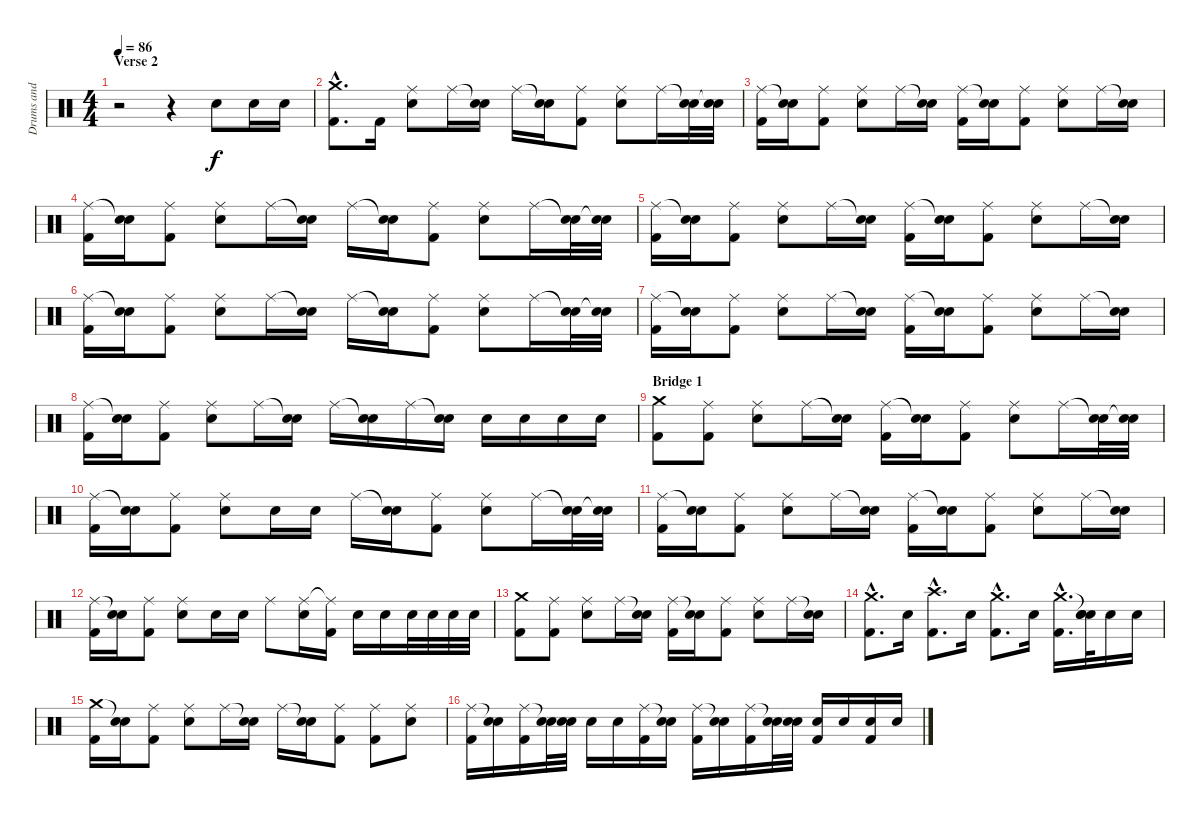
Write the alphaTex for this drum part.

\track ("Drums and Percussion" "Drums and ") {instrument percussion}
\staff {score}
\articulation defaults
\ts (4 4)
\section ("" "Verse 2")
\tempo 86
\clef neutral
\ks c
r.2{dy f} r.4 "Snare (hit) 2".8 "Snare (hit) 2".16 "Snare (hit) 2".16 |
("Crash medium (hit)"{hac} "Kick (hit) 2"{hac}).8{d} "Kick (hit) 2".16 ("Ride (middle)" "Snare (hit) 2").8 "Ride (middle)".16 ("Snare (hit)"{t} "Snare (hit) 2").16 "Ride (middle)".16 ("Snare (hit)"{t} "Snare (hit) 2").16 ("Ride (middle)" "Kick (hit) 2").8 ("Ride (middle)" "Snare (hit) 2").8 "Ride (middle)".16 ("Snare (hit)"{t} "Snare (hit) 2").32 ("Snare (hit)"{t} "Snare (hit) 2").32 |
("Ride (middle)" "Kick (hit) 2").16 ("Snare (hit)"{t} "Snare (hit) 2").16 ("Ride (middle)" "Kick (hit) 2").8 ("Ride (middle)" "Snare (hit) 2").8 "Ride (middle)".16 ("Snare (hit)"{t} "Snare (hit) 2").16 ("Ride (middle)" "Kick (hit) 2").16 ("Snare (hit)"{t} "Snare (hit) 2").16 ("Ride (middle)" "Kick (hit) 2").8 ("Ride (middle)" "Snare (hit) 2").8 "Ride (middle)".16 ("Snare (hit)"{t} "Snare (hit) 2").16 |
("Ride (middle)" "Kick (hit) 2").16 ("Snare (hit)"{t} "Snare (hit) 2").16 ("Ride (middle)" "Kick (hit) 2").8 ("Ride (middle)" "Snare (hit) 2").8 "Ride (middle)".16 ("Snare (hit)"{t} "Snare (hit) 2").16 "Ride (middle)".16 ("Snare (hit)"{t} "Snare (hit) 2").16 ("Ride (middle)" "Kick (hit) 2").8 ("Ride (middle)" "Snare (hit) 2").8 "Ride (middle)".16 ("Snare (hit)"{t} "Snare (hit) 2").32 ("Snare (hit)"{t} "Snare (hit) 2").32 |
("Ride (middle)" "Kick (hit) 2").16 ("Snare (hit)"{t} "Snare (hit) 2").16 ("Ride (middle)" "Kick (hit) 2").8 ("Ride (middle)" "Snare (hit) 2").8 "Ride (middle)".16 ("Snare (hit)"{t} "Snare (hit) 2").16 ("Ride (middle)" "Kick (hit) 2").16 ("Snare (hit)"{t} "Snare (hit) 2").16 ("Ride (middle)" "Kick (hit) 2").8 ("Ride (middle)" "Snare (hit) 2").8 "Ride (middle)".16 ("Snare (hit)"{t} "Snare (hit) 2").16 |
("Ride (middle)" "Kick (hit) 2").16 ("Snare (hit)"{t} "Snare (hit) 2").16 ("Ride (middle)" "Kick (hit) 2").8 ("Ride (middle)" "Snare (hit) 2").8 "Ride (middle)".16 ("Snare (hit)"{t} "Snare (hit) 2").16 "Ride (middle)".16 ("Snare (hit)"{t} "Snare (hit) 2").16 ("Ride (middle)" "Kick (hit) 2").8 ("Ride (middle)" "Snare (hit) 2").8 "Ride (middle)".16 ("Snare (hit)"{t} "Snare (hit) 2").32 ("Snare (hit)"{t} "Snare (hit) 2").32 |
("Ride (middle)" "Kick (hit) 2").16 ("Snare (hit)"{t} "Snare (hit) 2").16 ("Ride (middle)" "Kick (hit) 2").8 ("Ride (middle)" "Snare (hit) 2").8 "Ride (middle)".16 ("Snare (hit)"{t} "Snare (hit) 2").16 ("Ride (middle)" "Kick (hit) 2").16 ("Snare (hit)"{t} "Snare (hit) 2").16 ("Ride (middle)" "Kick (hit) 2").8 ("Ride (middle)" "Snare (hit) 2").8 "Ride (middle)".16 ("Snare (hit)"{t} "Snare (hit) 2").16 |
("Ride (middle)" "Kick (hit) 2").16 ("Snare (hit)"{t} "Snare (hit) 2").16 ("Ride (middle)" "Kick (hit) 2").8 ("Ride (middle)" "Snare (hit) 2").8 "Ride (middle)".16 ("Snare (hit)"{t} "Snare (hit) 2").16 "Ride (middle)".16 ("Snare (hit)"{t} "Snare (hit) 2").16 "Ride (middle)".16 ("Snare (hit)"{t} "Snare (hit) 2").16 "Snare (hit) 2".16 "Snare (hit) 2".16 "Snare (hit) 2".16 "Snare (hit) 2".16 |
\section ("" "Bridge 1")
("Crash medium (hit)" "Kick (hit) 2").8 ("Ride (middle)" "Kick (hit) 2").8 ("Ride (middle)" "Snare (hit) 2").8 "Ride (middle)".16 ("Snare (hit)"{t} "Snare (hit) 2").16 ("Ride (middle)" "Kick (hit) 2").16 ("Snare (hit)"{t} "Snare (hit) 2").16 ("Ride (middle)" "Kick (hit) 2").8 ("Ride (middle)" "Snare (hit) 2").8 "Ride (middle)".16 ("Snare (hit)"{t} "Snare (hit) 2").32 ("Snare (hit)"{t} "Snare (hit) 2").32 |
("Ride (middle)" "Kick (hit) 2").16 ("Snare (hit)"{t} "Snare (hit) 2").16 ("Ride (middle)" "Kick (hit) 2").8 ("Ride (middle)" "Snare (hit) 2").8 "Snare (hit) 2".16 "Snare (hit) 2".16 "Ride (middle)".16 ("Snare (hit)"{t} "Snare (hit) 2").16 ("Ride (middle)" "Kick (hit) 2").8 ("Ride (middle)" "Snare (hit) 2").8 "Ride (middle)".16 ("Snare (hit)"{t} "Snare (hit) 2").32 ("Snare (hit)"{t} "Snare (hit) 2").32 |
("Ride (middle)" "Kick (hit) 2").16 ("Snare (hit)"{t} "Snare (hit) 2").16 ("Ride (middle)" "Kick (hit) 2").8 ("Ride (middle)" "Snare (hit) 2").8 "Ride (middle)".16 ("Snare (hit)"{t} "Snare (hit) 2").16 ("Ride (middle)" "Kick (hit) 2").16 ("Snare (hit)"{t} "Snare (hit) 2").16 ("Ride (middle)" "Kick (hit) 2").8 ("Ride (middle)" "Snare (hit) 2").8 "Ride (middle)".16 ("Snare (hit)"{t} "Snare (hit) 2").16 |
("Ride (middle)" "Kick (hit) 2").16 ("Snare (hit)"{t} "Snare (hit) 2").16 ("Ride (middle)" "Kick (hit) 2").8 ("Ride (middle)" "Snare (hit) 2").8 "Snare (hit) 2".16 "Snare (hit) 2".16 "Ride (middle)".8 ("Ride (middle)" "Snare (hit) 2").16 ("Ride (middle)"{t} "Kick (hit) 2").16 "Snare (hit) 2".16 "Snare (hit) 2".16 "Snare (hit) 2".32 "Snare (hit) 2".32 "Snare (hit) 2".32 "Snare (hit) 2".32 |
("Crash medium (hit)" "Kick (hit) 2").8 ("Ride (middle)" "Kick (hit) 2").8 ("Ride (middle)" "Snare (hit) 2").8 "Ride (middle)".16 ("Snare (hit)"{t} "Snare (hit) 2").16 ("Ride (middle)" "Kick (hit) 2").16 ("Snare (hit)"{t} "Snare (hit) 2").16 ("Ride (middle)" "Kick (hit) 2").8 ("Ride (middle)" "Snare (hit) 2").8 "Ride (middle)".16 ("Snare (hit)"{t} "Snare (hit) 2").16 |
("Crash medium (hit)"{hac} "Kick (hit) 2"{hac}).8{d} "Snare (hit) 2".16 ("Crash high (hit)"{hac} "Kick (hit) 2"{hac}).8{d} "Snare (hit) 2".16 ("Crash medium (hit)"{hac} "Kick (hit) 2"{hac}).8{d} "Snare (hit) 2".16 ("Crash medium (hit)"{hac} "Kick (hit) 2"{hac}).16{d} ("Snare (hit)"{t} "Snare (hit) 2" "Snare (hit)").32 "Snare (hit) 2".16 "Snare (hit) 2".16 |
("Crash medium (hit)" "Kick (hit) 2").16 ("Snare (hit)"{t} "Snare (hit) 2").16 ("Ride (middle)" "Kick (hit) 2").8 ("Ride (middle)" "Snare (hit) 2").8 "Ride (middle)".16 ("Snare (hit)"{t} "Snare (hit) 2").16 "Ride (middle)".16 ("Snare (hit)"{t} "Snare (hit) 2").16 ("Ride (middle)" "Kick (hit) 2").8 ("Ride (middle)" "Kick (hit) 2").8 ("Ride (middle)" "Snare (hit) 2").8 |
("Ride (middle)" "Kick (hit) 2").16 ("Snare (hit)"{t} "Snare (hit) 2").16 ("Ride (middle)" "Kick (hit) 2").16 ("Snare (hit)"{t} "Snare (hit) 2").32 ("Snare (hit)"{t} "Snare (hit) 2").32 "Snare (hit) 2".16 "Snare (hit) 2".16 ("Ride (middle)" "Kick (hit) 2").16 ("Snare (hit)"{t} "Snare (hit) 2").16 ("Ride (middle)" "Kick (hit) 2").16 ("Snare (hit)"{t} "Snare (hit) 2").16 ("Ride (middle)" "Kick (hit) 2").16 ("Snare (hit)"{t} "Snare (hit) 2").32 ("Snare (hit)"{t} "Snare (hit) 2").32 ("Snare (hit) 2" "Kick (hit) 2").16 "Snare (hit) 2".16 ("Snare (hit) 2" "Kick (hit) 2").16 "Snare (hit) 2".16
